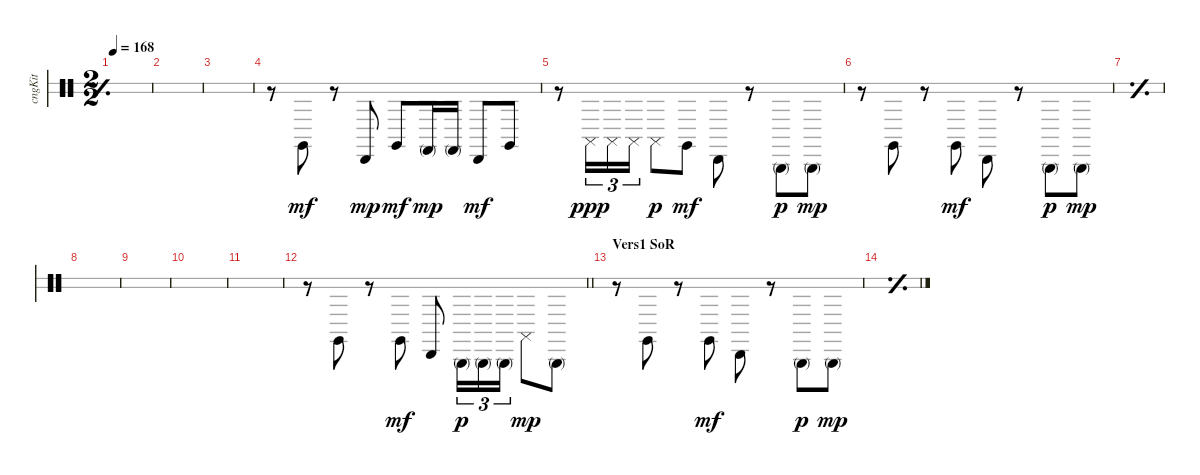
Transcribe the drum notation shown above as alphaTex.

\bracketExtendMode groupsimilarinstruments
\multiTrackTrackNamePolicy hidden
\otherSystemsTrackNameOrientation horizontal
\track ("Congas" "cngKit") {instrument percussion}
\staff {score 2}
\articulation defaults
\ts (2 2)
\tempo 168
\clef neutral
\simile simple
\ks c
|
|
|
r.8{beam Down} "Conga high (hit)".8{dy mf beam Up} r.8{beam Up} "Conga low (hit)".8{dy mp beam Up} "Conga high (hit)".8{dy mf beam Up} "Conga low (mute)".16{dy mp beam Up} "Conga low (mute)".16{beam Up} "Conga low (hit)".8{dy mf beam Up} "Conga high (hit)".8{beam Up} |
r.8{beam Down} "Conga high (slap)".16{tu (3 2) dy ppp beam Down} "Conga high (slap)".16{tu (3 2) beam Down} "Conga high (slap)".16{tu (3 2) beam Down} "Conga high (slap)".8{dy p beam Down} "Conga high (hit)".8{dy mf beam Down} "Conga low (hit)".8{beam Down} r.8{beam Down} "Conga high (mute)".8{dy p beam Down} "Conga high (mute)".8{dy mp beam Down} |
r.8{beam Down} "Conga high (hit)".8{beam Down} r.8{beam Down} "Conga high (hit)".8{dy mf beam Down} "Conga low (hit)".8{beam Down} r.8{beam Down} "Conga high (mute)".8{dy p beam Down} "Conga high (mute)".8{dy mp beam Down} |
\simile simple
|
|
|
|
|
\simile none
\barLineRight lightlight
r.8{beam Down} "Conga high (hit)".8{beam Down} r.8{beam Down} "Conga high (hit)".8{dy mf beam Down} "Conga low (hit)".8{beam Up} "Conga high (mute)".16{tu (3 2) dy p beam Down} "Conga high (mute)".16{tu (3 2) beam Down} "Conga high (mute)".16{tu (3 2) beam Down} "Conga high (slap)".8{dy mp beam Down} "Conga high (mute)".8{beam Down} |
\section ("" "Vers1 SoR")
r.8{beam Down} "Conga high (hit)".8{beam Down} r.8{beam Down} "Conga high (hit)".8{dy mf beam Down} "Conga low (hit)".8{beam Down} r.8{beam Down} "Conga high (mute)".8{dy p beam Down} "Conga high (mute)".8{dy mp beam Down} |
\simile simple
